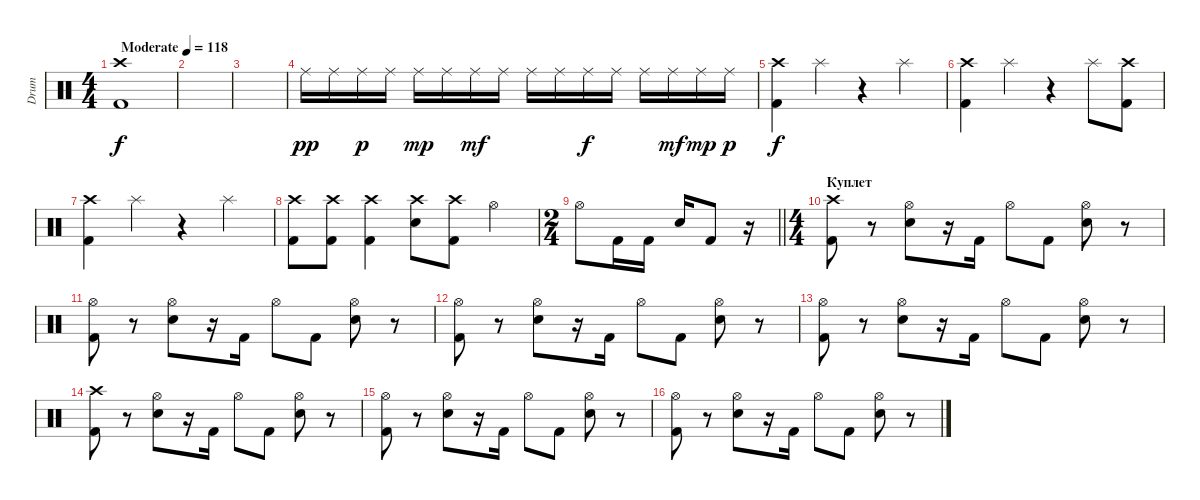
\track ("Drum" "Drum") {instrument percussion}
\staff {score}
\articulation defaults
\ts (4 4)
\tempo (118 "Moderate")
\clef neutral
\ks c
("Crash high (hit)" "Kick (hit) 2").1{dy f} |
|
|
"Ride (middle)".16{dy pp} "Ride (middle)".16 "Ride (middle)".16{dy p} "Ride (middle)".16 "Ride (middle)".16{dy mp} "Ride (middle)".16 "Ride (middle)".16{dy mf} "Ride (middle)".16 "Ride (middle)".16 "Ride (middle)".16 "Ride (middle)".16{dy f} "Ride (middle)".16 "Ride (middle)".16 "Ride (middle)".16{dy mf} "Ride (middle)".16{dy mp} "Ride (middle)".16{dy p} |
("Crash high (hit)" "Kick (hit) 2").4{dy f} "Splash (hit)".4 r.4 "Splash (hit)".4 |
("Crash high (hit)" "Kick (hit) 2").4 "Splash (hit)".4 r.4 "Splash (hit)".8 ("Crash high (hit)" "Kick (hit) 2").8 |
("Crash high (hit)" "Kick (hit) 2").4 "Splash (hit)".4 r.4 "Splash (hit)".4 |
("Crash high (hit)" "Kick (hit) 2").8 ("Crash high (hit)" "Kick (hit) 2").8 ("Crash high (hit)" "Kick (hit) 2").4 ("Crash high (hit)" "Snare (hit) 2").8 ("Crash high (hit)" "Kick (hit) 2").8 "Hi-Hat (open)".4 |
\ts (2 4)
\barLineRight lightlight "Hi-Hat (open)".8 "Kick (hit) 2".16 "Kick (hit) 2".16 "Snare (hit) 2".16 "Kick (hit) 2".8
r.16 |
\ts (4 4)
\section ("" "Куплет")
("Crash high (hit)" "Kick (hit) 2").8 r.8 ("Hi-Hat (open)" "Snare (hit) 2").8 r.16 "Kick (hit) 2".16 "Hi-Hat (open)".8 "Kick (hit) 2".8 ("Hi-Hat (open)" "Snare (hit) 2").8 r.8 |
("Hi-Hat (open)" "Kick (hit) 2").8 r.8 ("Hi-Hat (open)" "Snare (hit) 2").8 r.16 "Kick (hit) 2".16 "Hi-Hat (open)".8 "Kick (hit) 2".8 ("Hi-Hat (open)" "Snare (hit) 2").8 r.8 |
("Hi-Hat (open)" "Kick (hit) 2").8 r.8 ("Hi-Hat (open)" "Snare (hit) 2").8 r.16 "Kick (hit) 2".16 "Hi-Hat (open)".8 "Kick (hit) 2".8 ("Hi-Hat (open)" "Snare (hit) 2").8 r.8 |
("Hi-Hat (open)" "Kick (hit) 2").8 r.8 ("Hi-Hat (open)" "Snare (hit) 2").8 r.16 "Kick (hit) 2".16 "Hi-Hat (open)".8 "Kick (hit) 2".8 ("Hi-Hat (open)" "Snare (hit) 2").8 r.8 |
("Crash high (hit)" "Kick (hit) 2").8 r.8 ("Hi-Hat (open)" "Snare (hit) 2").8 r.16 "Kick (hit) 2".16 "Hi-Hat (open)".8 "Kick (hit) 2".8 ("Hi-Hat (open)" "Snare (hit) 2").8 r.8 |
("Hi-Hat (open)" "Kick (hit) 2").8 r.8 ("Hi-Hat (open)" "Snare (hit) 2").8 r.16 "Kick (hit) 2".16 "Hi-Hat (open)".8 "Kick (hit) 2".8 ("Hi-Hat (open)" "Snare (hit) 2").8 r.8 |
("Hi-Hat (open)" "Kick (hit) 2").8 r.8 ("Hi-Hat (open)" "Snare (hit) 2").8 r.16 "Kick (hit) 2".16 "Hi-Hat (open)".8 "Kick (hit) 2".8 ("Hi-Hat (open)" "Snare (hit) 2").8 r.8
